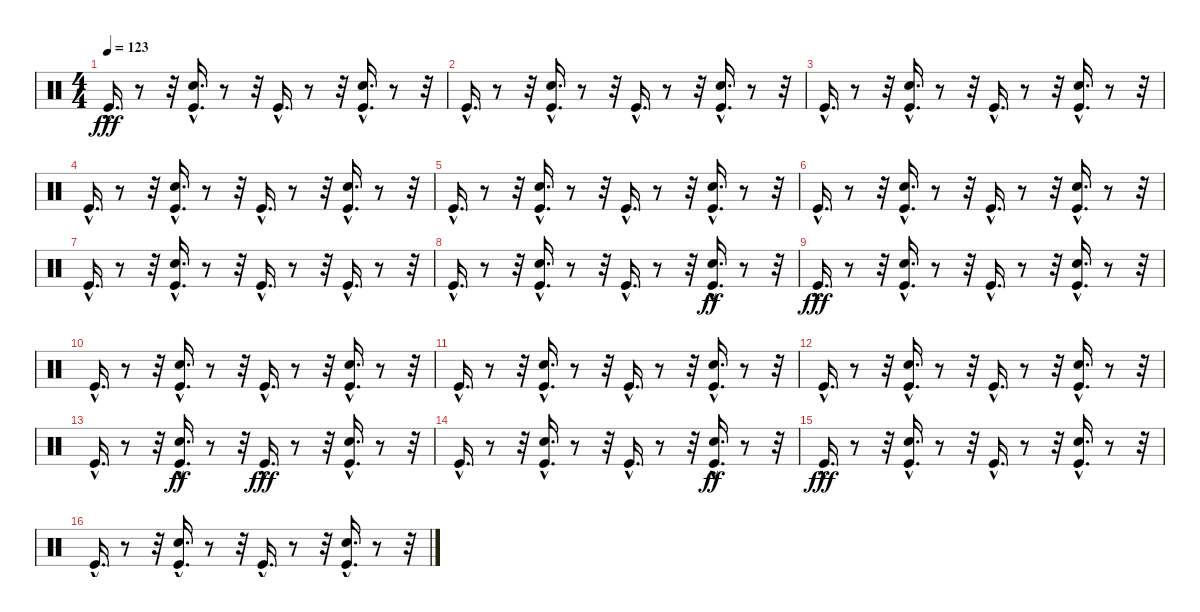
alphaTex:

\track "" {instrument percussion}
\staff {score}
\articulation defaults
\ts (4 4)
\tempo 123
\clef neutral
\ks c "Kick (hit)"{hac}.16{d dy fff}
r.8 r.32 ("Kick (hit)"{hac} "Snare (hit) 2").16{d} r.8 r.32 "Kick (hit)"{hac}.16{d} r.8 r.32 ("Snare (hit) 2" "Kick (hit)"{hac}).16{d} r.8 r.32 |
"Kick (hit)"{hac}.16{d} r.8 r.32 ("Snare (hit) 2" "Kick (hit)"{hac}).16{d} r.8 r.32 "Kick (hit)"{hac}.16{d} r.8 r.32 ("Snare (hit) 2" "Kick (hit)"{hac}).16{d} r.8 r.32 |
"Kick (hit)"{hac}.16{d} r.8 r.32 ("Snare (hit) 2" "Kick (hit)"{hac}).16{d} r.8 r.32 "Kick (hit)"{hac}.16{d} r.8 r.32 ("Snare (hit) 2" "Kick (hit)"{hac}).16{d} r.8 r.32 |
"Kick (hit)"{hac}.16{d} r.8 r.32 ("Snare (hit) 2" "Kick (hit)"{hac}).16{d} r.8 r.32 "Kick (hit)"{hac}.16{d} r.8 r.32 ("Snare (hit) 2" "Kick (hit)"{hac}).16{d} r.8 r.32 |
"Kick (hit)"{hac}.16{d} r.8 r.32 ("Snare (hit) 2" "Kick (hit)"{hac}).16{d} r.8 r.32 "Kick (hit)"{hac}.16{d} r.8 r.32 ("Snare (hit) 2" "Kick (hit)"{hac}).16{d} r.8 r.32 |
"Kick (hit)"{hac}.16{d} r.8 r.32 ("Snare (hit) 2" "Kick (hit)"{hac}).16{d} r.8 r.32 "Kick (hit)"{hac}.16{d} r.8 r.32 ("Snare (hit) 2" "Kick (hit)"{hac}).16{d} r.8 r.32 |
"Kick (hit)"{hac}.16{d} r.8 r.32 ("Snare (hit) 2" "Kick (hit)"{hac}).16{d} r.8 r.32 "Kick (hit)"{hac}.16{d} r.8 r.32 "Kick (hit)"{hac}.16{d} r.8 r.32 |
"Kick (hit)"{hac}.16{d} r.8 r.32 ("Snare (hit) 2" "Kick (hit)"{hac}).16{d} r.8 r.32 "Kick (hit)"{hac}.16{d} r.8 r.32 ("Kick (hit)"{hac} "Snare (hit) 2").16{d dy ff} r.8 r.32 |
"Kick (hit)"{hac}.16{d dy fff} r.8 r.32 ("Snare (hit) 2" "Kick (hit)"{hac}).16{d} r.8 r.32 "Kick (hit)"{hac}.16{d} r.8 r.32 ("Snare (hit) 2" "Kick (hit)"{hac}).16{d} r.8 r.32 |
"Kick (hit)"{hac}.16{d} r.8 r.32 ("Snare (hit) 2" "Kick (hit)"{hac}).16{d} r.8 r.32 "Kick (hit)"{hac}.16{d} r.8 r.32 ("Snare (hit) 2" "Kick (hit)"{hac}).16{d} r.8 r.32 |
"Kick (hit)"{hac}.16{d} r.8 r.32 ("Snare (hit) 2" "Kick (hit)"{hac}).16{d} r.8 r.32 "Kick (hit)"{hac}.16{d} r.8 r.32 ("Snare (hit) 2" "Kick (hit)"{hac}).16{d} r.8 r.32 |
"Kick (hit)"{hac}.16{d} r.8 r.32 ("Snare (hit) 2" "Kick (hit)"{hac}).16{d} r.8 r.32 "Kick (hit)"{hac}.16{d} r.8 r.32 ("Snare (hit) 2" "Kick (hit)"{hac}).16{d} r.8 r.32 |
"Kick (hit)"{hac}.16{d} r.8 r.32 ("Kick (hit)"{hac} "Snare (hit) 2").16{d dy ff} r.8 r.32 "Kick (hit)"{hac}.16{d dy fff} r.8 r.32 ("Kick (hit)"{hac} "Snare (hit) 2").16{d} r.8 r.32 |
"Kick (hit)"{hac}.16{d} r.8 r.32 ("Kick (hit)"{hac} "Snare (hit) 2").16{d} r.8 r.32 "Kick (hit)"{hac}.16{d} r.8 r.32 ("Kick (hit)"{hac} "Snare (hit) 2").16{d dy ff} r.8 r.32 |
"Kick (hit)"{hac}.16{d dy fff} r.8 r.32 ("Snare (hit) 2" "Kick (hit)"{hac}).16{d} r.8 r.32 "Kick (hit)"{hac}.16{d} r.8 r.32 ("Kick (hit)"{hac} "Snare (hit) 2").16{d} r.8 r.32 |
"Kick (hit)"{hac}.16{d} r.8 r.32 ("Snare (hit) 2" "Kick (hit)"{hac}).16{d} r.8 r.32 "Kick (hit)"{hac}.16{d} r.8 r.32 ("Snare (hit) 2" "Kick (hit)"{hac}).16{d} r.8 r.32
